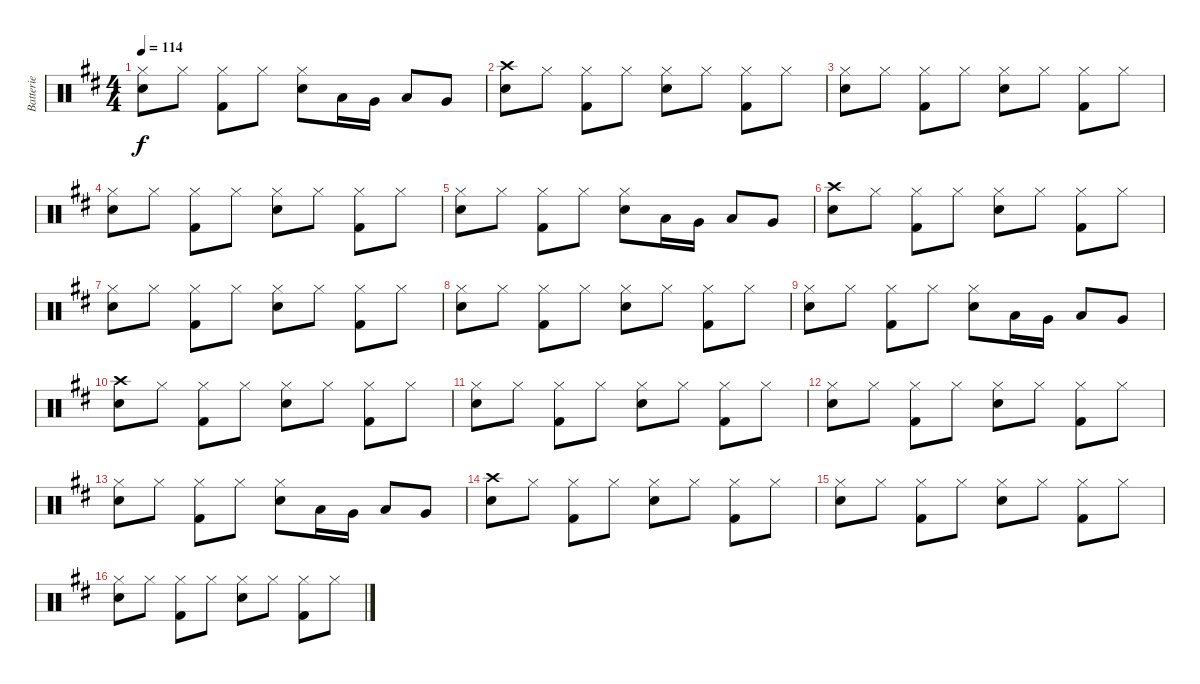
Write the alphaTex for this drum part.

\track ("Batterie" "Batterie") {instrument percussion}
\staff {score}
\articulation defaults
\ts (4 4)
\tempo 114
\clef neutral
\ks d
("Hi-Hat (closed)" "Snare (hit) 2").8{dy f} "Hi-Hat (closed)".8 ("Hi-Hat (closed)" "Kick (hit) 2").8 "Hi-Hat (closed)".8 ("Hi-Hat (closed)" "Snare (hit) 2").8 "Low Tom (hit)".16 "Very Low Tom (hit)".16 "Low Floor Tom (hit)".8 "Very Low Tom (hit)".8 |
("Crash high (hit)" "Snare (hit) 2").8 "Hi-Hat (closed)".8 ("Hi-Hat (closed)" "Kick (hit) 2").8 "Hi-Hat (closed)".8 ("Hi-Hat (closed)" "Snare (hit) 2").8 "Hi-Hat (closed)".8 ("Hi-Hat (closed)" "Kick (hit) 2").8 "Hi-Hat (closed)".8 |
("Hi-Hat (closed)" "Snare (hit) 2").8 "Hi-Hat (closed)".8 ("Hi-Hat (closed)" "Kick (hit) 2").8 "Hi-Hat (closed)".8 ("Hi-Hat (closed)" "Snare (hit) 2").8 "Hi-Hat (closed)".8 ("Hi-Hat (closed)" "Kick (hit) 2").8 "Hi-Hat (closed)".8 |
("Hi-Hat (closed)" "Snare (hit) 2").8 "Hi-Hat (closed)".8 ("Hi-Hat (closed)" "Kick (hit) 2").8 "Hi-Hat (closed)".8 ("Hi-Hat (closed)" "Snare (hit) 2").8 "Hi-Hat (closed)".8 ("Hi-Hat (closed)" "Kick (hit) 2").8 "Hi-Hat (closed)".8 |
("Hi-Hat (closed)" "Snare (hit) 2").8 "Hi-Hat (closed)".8 ("Hi-Hat (closed)" "Kick (hit) 2").8 "Hi-Hat (closed)".8 ("Hi-Hat (closed)" "Snare (hit) 2").8 "Low Tom (hit)".16 "Very Low Tom (hit)".16 "Low Floor Tom (hit)".8 "Very Low Tom (hit)".8 |
("Crash high (hit)" "Snare (hit) 2").8 "Hi-Hat (closed)".8 ("Hi-Hat (closed)" "Kick (hit) 2").8 "Hi-Hat (closed)".8 ("Hi-Hat (closed)" "Snare (hit) 2").8 "Hi-Hat (closed)".8 ("Hi-Hat (closed)" "Kick (hit) 2").8 "Hi-Hat (closed)".8 |
("Hi-Hat (closed)" "Snare (hit) 2").8 "Hi-Hat (closed)".8 ("Hi-Hat (closed)" "Kick (hit) 2").8 "Hi-Hat (closed)".8 ("Hi-Hat (closed)" "Snare (hit) 2").8 "Hi-Hat (closed)".8 ("Hi-Hat (closed)" "Kick (hit) 2").8 "Hi-Hat (closed)".8 |
("Hi-Hat (closed)" "Snare (hit) 2").8 "Hi-Hat (closed)".8 ("Hi-Hat (closed)" "Kick (hit) 2").8 "Hi-Hat (closed)".8 ("Hi-Hat (closed)" "Snare (hit) 2").8 "Hi-Hat (closed)".8 ("Hi-Hat (closed)" "Kick (hit) 2").8 "Hi-Hat (closed)".8 |
("Hi-Hat (closed)" "Snare (hit) 2").8 "Hi-Hat (closed)".8 ("Hi-Hat (closed)" "Kick (hit) 2").8 "Hi-Hat (closed)".8 ("Hi-Hat (closed)" "Snare (hit) 2").8 "Low Tom (hit)".16 "Very Low Tom (hit)".16 "Low Floor Tom (hit)".8 "Very Low Tom (hit)".8 |
("Crash high (hit)" "Snare (hit) 2").8 "Hi-Hat (closed)".8 ("Hi-Hat (closed)" "Kick (hit) 2").8 "Hi-Hat (closed)".8 ("Hi-Hat (closed)" "Snare (hit) 2").8 "Hi-Hat (closed)".8 ("Hi-Hat (closed)" "Kick (hit) 2").8 "Hi-Hat (closed)".8 |
("Hi-Hat (closed)" "Snare (hit) 2").8 "Hi-Hat (closed)".8 ("Hi-Hat (closed)" "Kick (hit) 2").8 "Hi-Hat (closed)".8 ("Hi-Hat (closed)" "Snare (hit) 2").8 "Hi-Hat (closed)".8 ("Hi-Hat (closed)" "Kick (hit) 2").8 "Hi-Hat (closed)".8 |
("Hi-Hat (closed)" "Snare (hit) 2").8 "Hi-Hat (closed)".8 ("Hi-Hat (closed)" "Kick (hit) 2").8 "Hi-Hat (closed)".8 ("Hi-Hat (closed)" "Snare (hit) 2").8 "Hi-Hat (closed)".8 ("Hi-Hat (closed)" "Kick (hit) 2").8 "Hi-Hat (closed)".8 |
("Hi-Hat (closed)" "Snare (hit) 2").8 "Hi-Hat (closed)".8 ("Hi-Hat (closed)" "Kick (hit) 2").8 "Hi-Hat (closed)".8 ("Hi-Hat (closed)" "Snare (hit) 2").8 "Low Tom (hit)".16 "Very Low Tom (hit)".16 "Low Floor Tom (hit)".8 "Very Low Tom (hit)".8 |
("Crash high (hit)" "Snare (hit) 2").8 "Hi-Hat (closed)".8 ("Hi-Hat (closed)" "Kick (hit) 2").8 "Hi-Hat (closed)".8 ("Hi-Hat (closed)" "Snare (hit) 2").8 "Hi-Hat (closed)".8 ("Hi-Hat (closed)" "Kick (hit) 2").8 "Hi-Hat (closed)".8 |
("Hi-Hat (closed)" "Snare (hit) 2").8 "Hi-Hat (closed)".8 ("Hi-Hat (closed)" "Kick (hit) 2").8 "Hi-Hat (closed)".8 ("Hi-Hat (closed)" "Snare (hit) 2").8 "Hi-Hat (closed)".8 ("Hi-Hat (closed)" "Kick (hit) 2").8 "Hi-Hat (closed)".8 |
("Hi-Hat (closed)" "Snare (hit) 2").8 "Hi-Hat (closed)".8 ("Hi-Hat (closed)" "Kick (hit) 2").8 "Hi-Hat (closed)".8 ("Hi-Hat (closed)" "Snare (hit) 2").8 "Hi-Hat (closed)".8 ("Hi-Hat (closed)" "Kick (hit) 2").8 "Hi-Hat (closed)".8
